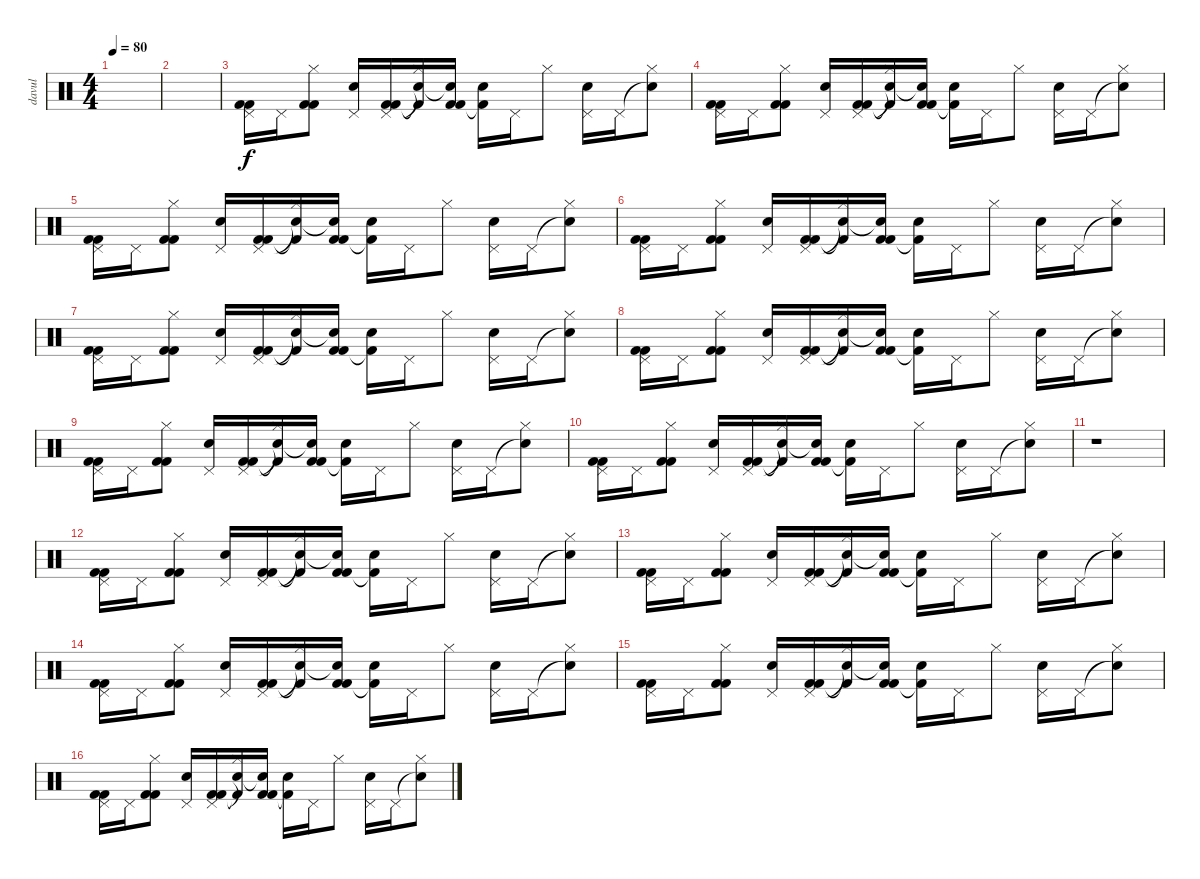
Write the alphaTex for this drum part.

\track ("davul" "davul") {instrument percussion}
\staff {score}
\articulation defaults
\ts (4 4)
\tempo 80
\clef neutral
\ks c
|
|
("Pedal Hi-Hat (hit)" "Kick (hit) 2" "Kick (hit) 2").16 "Pedal Hi-Hat (hit)".16 ("Hi-Hat (closed)" "Kick (hit) 2" "Kick (hit) 2").8 ("Electric Snare (hit)" "Pedal Hi-Hat (hit)").16 ("Pedal Hi-Hat (hit)" "Kick (hit) 2" "Kick (hit) 2").16 ("Snare (hit)"{t} "Hi-Hat (closed)" "Kick (hit) 2"{t}).16 ("Snare (hit)"{t} "Kick (hit) 2" "Kick (hit) 2").16 ("Snare (hit)" "Kick (hit) 2"{t}).16 "Pedal Hi-Hat (hit)".16 "Hi-Hat (closed)".8 ("Electric Snare (hit)" "Pedal Hi-Hat (hit)").16 "Pedal Hi-Hat (hit)".16 ("Snare (hit)"{t} "Hi-Hat (closed)").8 |
("Pedal Hi-Hat (hit)" "Kick (hit) 2" "Kick (hit) 2").16 "Pedal Hi-Hat (hit)".16 ("Hi-Hat (closed)" "Kick (hit) 2" "Kick (hit) 2").8 ("Electric Snare (hit)" "Pedal Hi-Hat (hit)").16 ("Pedal Hi-Hat (hit)" "Kick (hit) 2" "Kick (hit) 2").16 ("Snare (hit)"{t} "Hi-Hat (closed)" "Kick (hit) 2"{t}).16 ("Snare (hit)"{t} "Kick (hit) 2" "Kick (hit) 2").16 ("Snare (hit)" "Kick (hit) 2"{t}).16 "Pedal Hi-Hat (hit)".16 "Hi-Hat (closed)".8 ("Electric Snare (hit)" "Pedal Hi-Hat (hit)").16 "Pedal Hi-Hat (hit)".16 ("Snare (hit)"{t} "Hi-Hat (closed)").8 |
("Pedal Hi-Hat (hit)" "Kick (hit) 2" "Kick (hit) 2").16 "Pedal Hi-Hat (hit)".16 ("Hi-Hat (closed)" "Kick (hit) 2" "Kick (hit) 2").8 ("Electric Snare (hit)" "Pedal Hi-Hat (hit)").16 ("Pedal Hi-Hat (hit)" "Kick (hit) 2" "Kick (hit) 2").16 ("Snare (hit)"{t} "Hi-Hat (closed)" "Kick (hit) 2"{t}).16 ("Snare (hit)"{t} "Kick (hit) 2" "Kick (hit) 2").16 ("Snare (hit)" "Kick (hit) 2"{t}).16 "Pedal Hi-Hat (hit)".16 "Hi-Hat (closed)".8 ("Electric Snare (hit)" "Pedal Hi-Hat (hit)").16 "Pedal Hi-Hat (hit)".16 ("Snare (hit)"{t} "Hi-Hat (closed)").8 |
("Pedal Hi-Hat (hit)" "Kick (hit) 2" "Kick (hit) 2").16 "Pedal Hi-Hat (hit)".16 ("Hi-Hat (closed)" "Kick (hit) 2" "Kick (hit) 2").8 ("Electric Snare (hit)" "Pedal Hi-Hat (hit)").16 ("Pedal Hi-Hat (hit)" "Kick (hit) 2" "Kick (hit) 2").16 ("Snare (hit)"{t} "Hi-Hat (closed)" "Kick (hit) 2"{t}).16 ("Snare (hit)"{t} "Kick (hit) 2" "Kick (hit) 2").16 ("Snare (hit)" "Kick (hit) 2"{t}).16 "Pedal Hi-Hat (hit)".16 "Hi-Hat (closed)".8 ("Electric Snare (hit)" "Pedal Hi-Hat (hit)").16 "Pedal Hi-Hat (hit)".16 ("Snare (hit)"{t} "Hi-Hat (closed)").8 |
("Pedal Hi-Hat (hit)" "Kick (hit) 2" "Kick (hit) 2").16 "Pedal Hi-Hat (hit)".16 ("Hi-Hat (closed)" "Kick (hit) 2" "Kick (hit) 2").8 ("Electric Snare (hit)" "Pedal Hi-Hat (hit)").16 ("Pedal Hi-Hat (hit)" "Kick (hit) 2" "Kick (hit) 2").16 ("Snare (hit)"{t} "Hi-Hat (closed)" "Kick (hit) 2"{t}).16 ("Snare (hit)"{t} "Kick (hit) 2" "Kick (hit) 2").16 ("Snare (hit)" "Kick (hit) 2"{t}).16 "Pedal Hi-Hat (hit)".16 "Hi-Hat (closed)".8 ("Electric Snare (hit)" "Pedal Hi-Hat (hit)").16 "Pedal Hi-Hat (hit)".16 ("Snare (hit)"{t} "Hi-Hat (closed)").8 |
("Pedal Hi-Hat (hit)" "Kick (hit) 2" "Kick (hit) 2").16 "Pedal Hi-Hat (hit)".16 ("Hi-Hat (closed)" "Kick (hit) 2" "Kick (hit) 2").8 ("Electric Snare (hit)" "Pedal Hi-Hat (hit)").16 ("Pedal Hi-Hat (hit)" "Kick (hit) 2" "Kick (hit) 2").16 ("Snare (hit)"{t} "Hi-Hat (closed)" "Kick (hit) 2"{t}).16 ("Snare (hit)"{t} "Kick (hit) 2" "Kick (hit) 2").16 ("Snare (hit)" "Kick (hit) 2"{t}).16 "Pedal Hi-Hat (hit)".16 "Hi-Hat (closed)".8 ("Electric Snare (hit)" "Pedal Hi-Hat (hit)").16 "Pedal Hi-Hat (hit)".16 ("Snare (hit)"{t} "Hi-Hat (closed)").8 |
("Pedal Hi-Hat (hit)" "Kick (hit) 2" "Kick (hit) 2").16 "Pedal Hi-Hat (hit)".16 ("Hi-Hat (closed)" "Kick (hit) 2" "Kick (hit) 2").8 ("Electric Snare (hit)" "Pedal Hi-Hat (hit)").16 ("Pedal Hi-Hat (hit)" "Kick (hit) 2" "Kick (hit) 2").16 ("Snare (hit)"{t} "Hi-Hat (closed)" "Kick (hit) 2"{t}).16 ("Snare (hit)"{t} "Kick (hit) 2" "Kick (hit) 2").16 ("Snare (hit)" "Kick (hit) 2"{t}).16 "Pedal Hi-Hat (hit)".16 "Hi-Hat (closed)".8 ("Electric Snare (hit)" "Pedal Hi-Hat (hit)").16 "Pedal Hi-Hat (hit)".16 ("Snare (hit)"{t} "Hi-Hat (closed)").8 |
("Pedal Hi-Hat (hit)" "Kick (hit) 2" "Kick (hit) 2").16 "Pedal Hi-Hat (hit)".16 ("Hi-Hat (closed)" "Kick (hit) 2" "Kick (hit) 2").8 ("Electric Snare (hit)" "Pedal Hi-Hat (hit)").16 ("Pedal Hi-Hat (hit)" "Kick (hit) 2" "Kick (hit) 2").16 ("Snare (hit)"{t} "Hi-Hat (closed)" "Kick (hit) 2"{t}).16 ("Snare (hit)"{t} "Kick (hit) 2" "Kick (hit) 2").16 ("Snare (hit)" "Kick (hit) 2"{t}).16 "Pedal Hi-Hat (hit)".16 "Hi-Hat (closed)".8 ("Electric Snare (hit)" "Pedal Hi-Hat (hit)").16 "Pedal Hi-Hat (hit)".16 ("Snare (hit)"{t} "Hi-Hat (closed)").8 |
r.1 |
("Pedal Hi-Hat (hit)" "Kick (hit) 2" "Kick (hit) 2").16 "Pedal Hi-Hat (hit)".16 ("Hi-Hat (closed)" "Kick (hit) 2" "Kick (hit) 2").8 ("Electric Snare (hit)" "Pedal Hi-Hat (hit)").16 ("Pedal Hi-Hat (hit)" "Kick (hit) 2" "Kick (hit) 2").16 ("Snare (hit)"{t} "Hi-Hat (closed)" "Kick (hit) 2"{t}).16 ("Snare (hit)"{t} "Kick (hit) 2" "Kick (hit) 2").16 ("Snare (hit)" "Kick (hit) 2"{t}).16 "Pedal Hi-Hat (hit)".16 "Hi-Hat (closed)".8 ("Electric Snare (hit)" "Pedal Hi-Hat (hit)").16 "Pedal Hi-Hat (hit)".16 ("Snare (hit)"{t} "Hi-Hat (closed)").8 |
("Pedal Hi-Hat (hit)" "Kick (hit) 2" "Kick (hit) 2").16 "Pedal Hi-Hat (hit)".16 ("Hi-Hat (closed)" "Kick (hit) 2" "Kick (hit) 2").8 ("Electric Snare (hit)" "Pedal Hi-Hat (hit)").16 ("Pedal Hi-Hat (hit)" "Kick (hit) 2" "Kick (hit) 2").16 ("Snare (hit)"{t} "Hi-Hat (closed)" "Kick (hit) 2"{t}).16 ("Snare (hit)"{t} "Kick (hit) 2" "Kick (hit) 2").16 ("Snare (hit)" "Kick (hit) 2"{t}).16 "Pedal Hi-Hat (hit)".16 "Hi-Hat (closed)".8 ("Electric Snare (hit)" "Pedal Hi-Hat (hit)").16 "Pedal Hi-Hat (hit)".16 ("Snare (hit)"{t} "Hi-Hat (closed)").8 |
("Pedal Hi-Hat (hit)" "Kick (hit) 2" "Kick (hit) 2").16 "Pedal Hi-Hat (hit)".16 ("Hi-Hat (closed)" "Kick (hit) 2" "Kick (hit) 2").8 ("Electric Snare (hit)" "Pedal Hi-Hat (hit)").16 ("Pedal Hi-Hat (hit)" "Kick (hit) 2" "Kick (hit) 2").16 ("Snare (hit)"{t} "Hi-Hat (closed)" "Kick (hit) 2"{t}).16 ("Snare (hit)"{t} "Kick (hit) 2" "Kick (hit) 2").16 ("Snare (hit)" "Kick (hit) 2"{t}).16 "Pedal Hi-Hat (hit)".16 "Hi-Hat (closed)".8 ("Electric Snare (hit)" "Pedal Hi-Hat (hit)").16 "Pedal Hi-Hat (hit)".16 ("Snare (hit)"{t} "Hi-Hat (closed)").8 |
("Pedal Hi-Hat (hit)" "Kick (hit) 2" "Kick (hit) 2").16 "Pedal Hi-Hat (hit)".16 ("Hi-Hat (closed)" "Kick (hit) 2" "Kick (hit) 2").8 ("Electric Snare (hit)" "Pedal Hi-Hat (hit)").16 ("Pedal Hi-Hat (hit)" "Kick (hit) 2" "Kick (hit) 2").16 ("Snare (hit)"{t} "Hi-Hat (closed)" "Kick (hit) 2"{t}).16 ("Snare (hit)"{t} "Kick (hit) 2" "Kick (hit) 2").16 ("Snare (hit)" "Kick (hit) 2"{t}).16 "Pedal Hi-Hat (hit)".16 "Hi-Hat (closed)".8 ("Electric Snare (hit)" "Pedal Hi-Hat (hit)").16 "Pedal Hi-Hat (hit)".16 ("Snare (hit)"{t} "Hi-Hat (closed)").8 |
("Pedal Hi-Hat (hit)" "Kick (hit) 2" "Kick (hit) 2").16 "Pedal Hi-Hat (hit)".16 ("Hi-Hat (closed)" "Kick (hit) 2" "Kick (hit) 2").8 ("Electric Snare (hit)" "Pedal Hi-Hat (hit)").16 ("Pedal Hi-Hat (hit)" "Kick (hit) 2" "Kick (hit) 2").16 ("Snare (hit)"{t} "Hi-Hat (closed)" "Kick (hit) 2"{t}).16 ("Snare (hit)"{t} "Kick (hit) 2" "Kick (hit) 2").16 ("Snare (hit)" "Kick (hit) 2"{t}).16 "Pedal Hi-Hat (hit)".16 "Hi-Hat (closed)".8 ("Electric Snare (hit)" "Pedal Hi-Hat (hit)").16 "Pedal Hi-Hat (hit)".16 ("Snare (hit)"{t} "Hi-Hat (closed)").8
